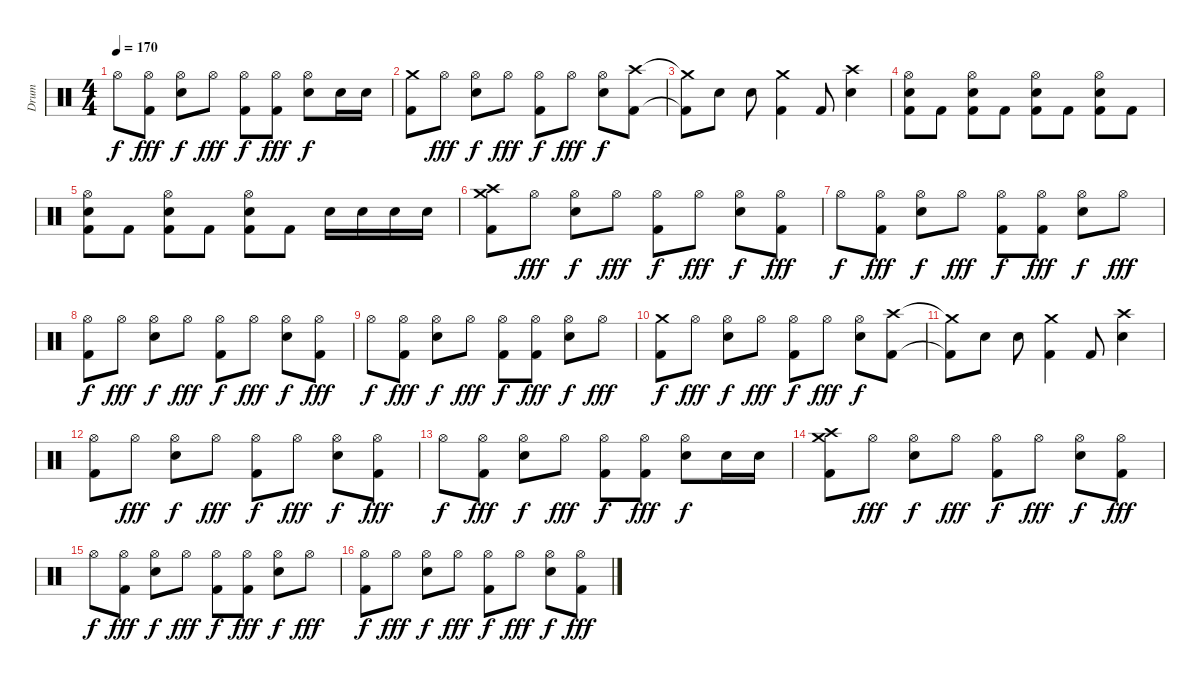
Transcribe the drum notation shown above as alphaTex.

\track ("Drum" "Drum") {instrument percussion}
\staff {score}
\articulation defaults
\ts (4 4)
\tempo 170
\clef neutral
\ks c "Hi-Hat (open)".8{dy f}
("Kick (hit) 2" "Hi-Hat (open)").8{dy fff} ("Electric Snare (hit)" "Hi-Hat (open)").8{dy f} "Hi-Hat (open)".8{dy fff} ("Kick (hit) 2" "Hi-Hat (open)").8{dy f} ("Kick (hit) 2" "Hi-Hat (open)").8{dy fff} ("Electric Snare (hit)" "Hi-Hat (open)").8{dy f} "Electric Snare (hit)".16 "Electric Snare (hit)".16 |
("Kick (hit) 2" "Crash medium (hit)").8 "Hi-Hat (open)".8{dy fff} ("Electric Snare (hit)" "Hi-Hat (open)").8{dy f} "Hi-Hat (open)".8{dy fff} ("Kick (hit) 2" "Hi-Hat (open)").8{dy f} "Hi-Hat (open)".8{dy fff} ("Electric Snare (hit)" "Hi-Hat (open)").8{dy f} ("Kick (hit) 2" "Crash high (hit)").8 |
("Kick (hit) 2"{t} "Crash medium (hit)"{t}).8 "Electric Snare (hit)".8 "Electric Snare (hit)".8 ("Kick (hit) 2" "Crash medium (hit)").4 "Kick (hit) 2".8 ("Crash high (hit)" "Electric Snare (hit)").4 |
("Kick (hit) 2" "Electric Snare (hit)" "Hi-Hat (open)").8 "Kick (hit) 2".8 ("Kick (hit) 2" "Electric Snare (hit)" "Hi-Hat (open)").8 "Kick (hit) 2".8 ("Kick (hit) 2" "Electric Snare (hit)" "Hi-Hat (open)").8 "Kick (hit) 2".8 ("Kick (hit) 2" "Electric Snare (hit)" "Hi-Hat (open)").8 "Kick (hit) 2".8 |
("Kick (hit) 2" "Electric Snare (hit)" "Hi-Hat (open)").8 "Kick (hit) 2".8 ("Kick (hit) 2" "Electric Snare (hit)" "Hi-Hat (open)").8 "Kick (hit) 2".8 ("Kick (hit) 2" "Electric Snare (hit)" "Hi-Hat (open)").8 "Kick (hit) 2".8 "Electric Snare (hit)".16 "Electric Snare (hit)".16 "Electric Snare (hit)".16 "Electric Snare (hit)".16 |
("Kick (hit) 2" "Crash medium (hit)" "Crash high (hit)").8 "Hi-Hat (open)".8{dy fff} ("Electric Snare (hit)" "Hi-Hat (open)").8{dy f} "Hi-Hat (open)".8{dy fff} ("Kick (hit) 2" "Hi-Hat (open)").8{dy f} "Hi-Hat (open)".8{dy fff} ("Electric Snare (hit)" "Hi-Hat (open)").8{dy f} ("Kick (hit) 2" "Hi-Hat (open)").8{dy fff} |
"Hi-Hat (open)".8{dy f} ("Kick (hit) 2" "Hi-Hat (open)").8{dy fff} ("Electric Snare (hit)" "Hi-Hat (open)").8{dy f} "Hi-Hat (open)".8{dy fff} ("Kick (hit) 2" "Hi-Hat (open)").8{dy f} ("Kick (hit) 2" "Hi-Hat (open)").8{dy fff} ("Electric Snare (hit)" "Hi-Hat (open)").8{dy f} "Hi-Hat (open)".8{dy fff} |
("Kick (hit) 2" "Hi-Hat (open)").8{dy f} "Hi-Hat (open)".8{dy fff} ("Electric Snare (hit)" "Hi-Hat (open)").8{dy f} "Hi-Hat (open)".8{dy fff} ("Kick (hit) 2" "Hi-Hat (open)").8{dy f} "Hi-Hat (open)".8{dy fff} ("Electric Snare (hit)" "Hi-Hat (open)").8{dy f} ("Kick (hit) 2" "Hi-Hat (open)").8{dy fff} |
"Hi-Hat (open)".8{dy f} ("Kick (hit) 2" "Hi-Hat (open)").8{dy fff} ("Electric Snare (hit)" "Hi-Hat (open)").8{dy f} "Hi-Hat (open)".8{dy fff} ("Kick (hit) 2" "Hi-Hat (open)").8{dy f} ("Kick (hit) 2" "Hi-Hat (open)").8{dy fff} ("Electric Snare (hit)" "Hi-Hat (open)").8{dy f} "Hi-Hat (open)".8{dy fff} |
("Kick (hit) 2" "Crash medium (hit)").8{dy f} "Hi-Hat (open)".8{dy fff} ("Electric Snare (hit)" "Hi-Hat (open)").8{dy f} "Hi-Hat (open)".8{dy fff} ("Kick (hit) 2" "Hi-Hat (open)").8{dy f} "Hi-Hat (open)".8{dy fff} ("Electric Snare (hit)" "Hi-Hat (open)").8{dy f} ("Kick (hit) 2" "Crash high (hit)").8 |
("Kick (hit) 2"{t} "Crash medium (hit)"{t}).8 "Electric Snare (hit)".8 "Electric Snare (hit)".8 ("Kick (hit) 2" "Crash medium (hit)").4 "Kick (hit) 2".8 ("Electric Snare (hit)" "Crash high (hit)").4 |
("Kick (hit) 2" "Hi-Hat (open)").8 "Hi-Hat (open)".8{dy fff} ("Electric Snare (hit)" "Hi-Hat (open)").8{dy f} "Hi-Hat (open)".8{dy fff} ("Kick (hit) 2" "Hi-Hat (open)").8{dy f} "Hi-Hat (open)".8{dy fff} ("Electric Snare (hit)" "Hi-Hat (open)").8{dy f} ("Kick (hit) 2" "Hi-Hat (open)").8{dy fff} |
"Hi-Hat (open)".8{dy f} ("Kick (hit) 2" "Hi-Hat (open)").8{dy fff} ("Electric Snare (hit)" "Hi-Hat (open)").8{dy f} "Hi-Hat (open)".8{dy fff} ("Kick (hit) 2" "Hi-Hat (open)").8{dy f} ("Kick (hit) 2" "Hi-Hat (open)").8{dy fff} ("Electric Snare (hit)" "Hi-Hat (open)").8{dy f} "Electric Snare (hit)".16 "Electric Snare (hit)".16 |
("Kick (hit) 2" "Crash medium (hit)" "Crash high (hit)").8 "Hi-Hat (open)".8{dy fff} ("Electric Snare (hit)" "Hi-Hat (open)").8{dy f} "Hi-Hat (open)".8{dy fff} ("Kick (hit) 2" "Hi-Hat (open)").8{dy f} "Hi-Hat (open)".8{dy fff} ("Electric Snare (hit)" "Hi-Hat (open)").8{dy f} ("Kick (hit) 2" "Hi-Hat (open)").8{dy fff} |
"Hi-Hat (open)".8{dy f} ("Kick (hit) 2" "Hi-Hat (open)").8{dy fff} ("Electric Snare (hit)" "Hi-Hat (open)").8{dy f} "Hi-Hat (open)".8{dy fff} ("Kick (hit) 2" "Hi-Hat (open)").8{dy f} ("Kick (hit) 2" "Hi-Hat (open)").8{dy fff} ("Electric Snare (hit)" "Hi-Hat (open)").8{dy f} "Hi-Hat (open)".8{dy fff} |
("Kick (hit) 2" "Hi-Hat (open)").8{dy f} "Hi-Hat (open)".8{dy fff} ("Electric Snare (hit)" "Hi-Hat (open)").8{dy f} "Hi-Hat (open)".8{dy fff} ("Kick (hit) 2" "Hi-Hat (open)").8{dy f} "Hi-Hat (open)".8{dy fff} ("Electric Snare (hit)" "Hi-Hat (open)").8{dy f} ("Kick (hit) 2" "Hi-Hat (open)").8{dy fff}
